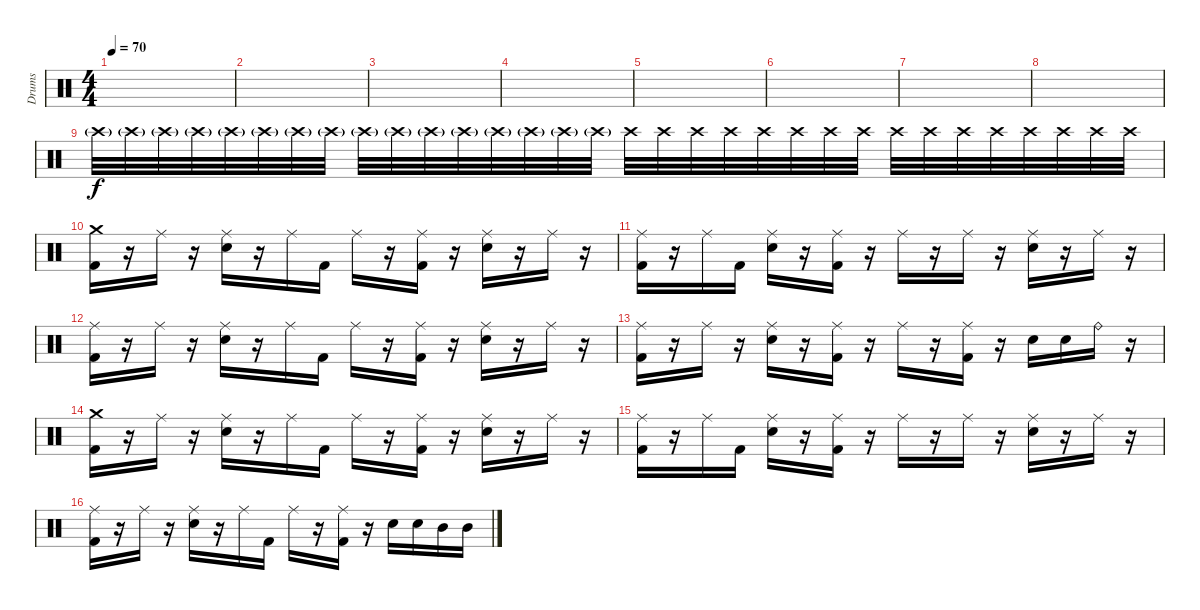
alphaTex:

\track ("Drums" "Drums") {instrument percussion}
\staff {score}
\articulation defaults
\ts (4 4)
\tempo 70
\clef neutral
\ks c
|
|
|
|
|
|
|
|
"Crash high (hit)"{g}.32 "Crash high (hit)"{g}.32 "Crash high (hit)"{g}.32 "Crash high (hit)"{g}.32 "Crash high (hit)"{g}.32 "Crash high (hit)"{g}.32 "Crash high (hit)"{g}.32 "Crash high (hit)"{g}.32 "Crash high (hit)"{g}.32 "Crash high (hit)"{g}.32 "Crash high (hit)"{g}.32 "Crash high (hit)"{g}.32 "Crash high (hit)"{g}.32 "Crash high (hit)"{g}.32 "Crash high (hit)"{g}.32 "Crash high (hit)"{g}.32 "Crash high (hit)".32{dy f} "Crash high (hit)".32 "Crash high (hit)".32 "Crash high (hit)".32 "Crash high (hit)".32 "Crash high (hit)".32 "Crash high (hit)".32 "Crash high (hit)".32 "Crash high (hit)".32 "Crash high (hit)".32 "Crash high (hit)".32 "Crash high (hit)".32 "Crash high (hit)".32 "Crash high (hit)".32 "Crash high (hit)".32 "Crash high (hit)".32 |
("Crash medium (hit)" "Kick (hit) 2").16 r.16 "Ride (middle)".16 r.16 ("Ride (middle)" "Electric Snare (hit)").16 r.16 "Ride (middle)".16 "Kick (hit) 2".16 "Ride (middle)".16 r.16 ("Ride (middle)" "Kick (hit) 2").16 r.16 ("Ride (middle)" "Electric Snare (hit)").16 r.16 "Ride (middle)".16 r.16 |
("Ride (middle)" "Kick (hit) 2").16 r.16 "Ride (middle)".16 "Kick (hit) 2".16 ("Ride (middle)" "Electric Snare (hit)").16 r.16 ("Ride (middle)" "Kick (hit) 2").16 r.16 "Ride (middle)".16 r.16 "Ride (middle)".16 r.16 ("Ride (middle)" "Electric Snare (hit)").16 r.16 "Ride (middle)".16 r.16 |
("Ride (middle)" "Kick (hit) 2").16 r.16 "Ride (middle)".16 r.16 ("Ride (middle)" "Electric Snare (hit)").16 r.16 "Ride (middle)".16 "Kick (hit) 2".16 "Ride (middle)".16 r.16 ("Ride (middle)" "Kick (hit) 2").16 r.16 ("Ride (middle)" "Electric Snare (hit)").16 r.16 "Ride (middle)".16 r.16 |
("Ride (middle)" "Kick (hit) 2").16 r.16 "Ride (middle)".16 r.16 ("Ride (middle)" "Electric Snare (hit)").16 r.16 ("Ride (middle)" "Kick (hit) 2").16 r.16 "Ride (middle)".16 r.16 ("Ride (middle)" "Kick (hit) 2").16 r.16 "Electric Snare (hit)".16 "Electric Snare (hit)".16 "Ride (bell)".16 r.16 |
("Crash medium (hit)" "Kick (hit) 2").16 r.16 "Ride (middle)".16 r.16 ("Ride (middle)" "Electric Snare (hit)").16 r.16 "Ride (middle)".16 "Kick (hit) 2".16 "Ride (middle)".16 r.16 ("Ride (middle)" "Kick (hit) 2").16 r.16 ("Ride (middle)" "Electric Snare (hit)").16 r.16 "Ride (middle)".16 r.16 |
("Ride (middle)" "Kick (hit) 2").16 r.16 "Ride (middle)".16 "Kick (hit) 2".16 ("Ride (middle)" "Electric Snare (hit)").16 r.16 ("Ride (middle)" "Kick (hit) 2").16 r.16 "Ride (middle)".16 r.16 "Ride (middle)".16 r.16 ("Ride (middle)" "Electric Snare (hit)").16 r.16 "Ride (middle)".16 r.16 |
("Ride (middle)" "Kick (hit) 2").16 r.16 "Ride (middle)".16 r.16 ("Ride (middle)" "Electric Snare (hit)").16 r.16 "Ride (middle)".16 "Kick (hit) 2".16 "Ride (middle)".16 r.16 ("Ride (middle)" "Kick (hit) 2").16 r.16 "Electric Snare (hit)".16 "Electric Snare (hit)".16 "Mid Tom (hit)".16 "Mid Tom (hit)".16
